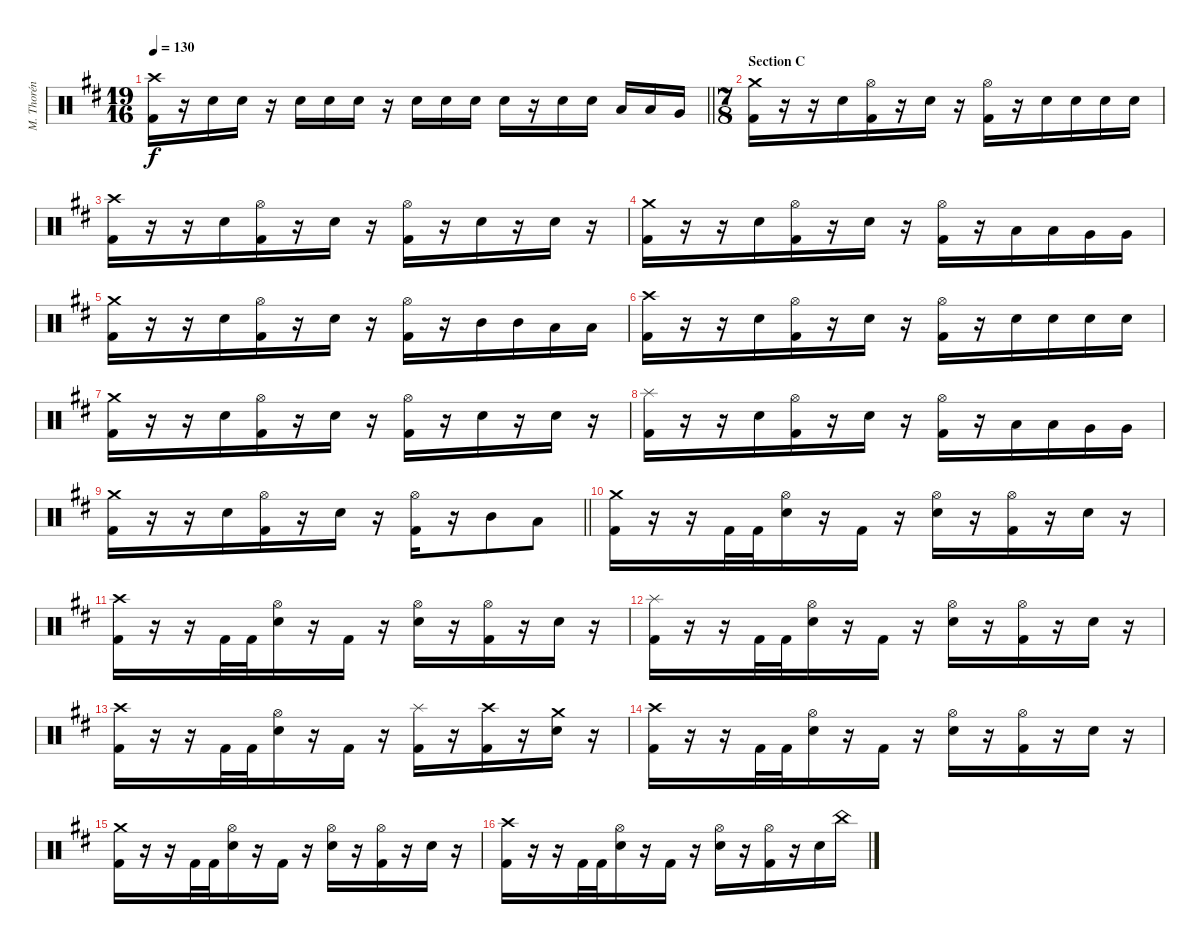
\track ("M. Thorén (Drums)" "M. Thorén ") {instrument percussion}
\staff {score}
\articulation defaults
\ts (19 16)
\tempo 130
\clef neutral
\barLineRight lightlight
\ks bminor
("Crash high (hit)" "Kick (hit) 2").16{dy f} r.16 "Electric Snare (hit)".16 "Electric Snare (hit)".16 r.16 "Electric Snare (hit)".16 "Electric Snare (hit)".16 "Electric Snare (hit)".16 r.16 "Electric Snare (hit)".16 "Electric Snare (hit)".16 "Electric Snare (hit)".16 "Electric Snare (hit)".16 r.16 "Electric Snare (hit)".16 "Electric Snare (hit)".16 "Low Tom (hit)".16 "Low Tom (hit)".16 "Very Low Tom (hit)".16 |
\ts (7 8)
\section ("" "Section C")
("Crash medium (hit)" "Kick (hit) 2").16 r.16 r.16 "Electric Snare (hit)".16 ("Hi-Hat (open)" "Kick (hit) 2").16 r.16 "Electric Snare (hit)".16 r.16 ("Hi-Hat (open)" "Kick (hit) 2").16 r.16 "Electric Snare (hit)".16 "Electric Snare (hit)".16 "Electric Snare (hit)".16 "Electric Snare (hit)".16 |
("Crash high (hit)" "Kick (hit) 2").16 r.16 r.16 "Electric Snare (hit)".16 ("Hi-Hat (open)" "Kick (hit) 2").16 r.16 "Electric Snare (hit)".16 r.16 ("Hi-Hat (open)" "Kick (hit) 2").16 r.16 "Electric Snare (hit)".16 r.16 "Electric Snare (hit)".16 r.16 |
("Crash medium (hit)" "Kick (hit) 2").16 r.16 r.16 "Electric Snare (hit)".16 ("Hi-Hat (open)" "Kick (hit) 2").16 r.16 "Electric Snare (hit)".16 r.16 ("Hi-Hat (open)" "Kick (hit) 2").16 r.16 "Low Tom (hit)".16 "Low Tom (hit)".16 "Very Low Tom (hit)".16 "Very Low Tom (hit)".16 |
("Crash medium (hit)" "Kick (hit) 2").16 r.16 r.16 "Electric Snare (hit)".16 ("Hi-Hat (open)" "Kick (hit) 2").16 r.16 "Electric Snare (hit)".16 r.16 ("Hi-Hat (open)" "Kick (hit) 2").16 r.16 "Mid Tom (hit)".16 "Mid Tom (hit)".16 "Low Tom (hit)".16 "Low Tom (hit)".16 |
("Crash high (hit)" "Kick (hit) 2").16 r.16 r.16 "Electric Snare (hit)".16 ("Hi-Hat (open)" "Kick (hit) 2").16 r.16 "Electric Snare (hit)".16 r.16 ("Hi-Hat (open)" "Kick (hit) 2").16 r.16 "Electric Snare (hit)".16 "Electric Snare (hit)".16 "Electric Snare (hit)".16 "Electric Snare (hit)".16 |
("Crash medium (hit)" "Kick (hit) 2").16 r.16 r.16 "Electric Snare (hit)".16 ("Hi-Hat (open)" "Kick (hit) 2").16 r.16 "Electric Snare (hit)".16 r.16 ("Hi-Hat (open)" "Kick (hit) 2").16 r.16 "Electric Snare (hit)".16 r.16 "Electric Snare (hit)".16 r.16 |
("Splash (hit)" "Kick (hit) 2").16 r.16 r.16 "Electric Snare (hit)".16 ("Hi-Hat (open)" "Kick (hit) 2").16 r.16 "Electric Snare (hit)".16 r.16 ("Hi-Hat (open)" "Kick (hit) 2").16 r.16 "Low Tom (hit)".16 "Low Tom (hit)".16 "Very Low Tom (hit)".16 "Very Low Tom (hit)".16 |
\barLineRight lightlight
("Crash medium (hit)" "Kick (hit) 2").16 r.16 r.16 "Electric Snare (hit)".16 ("Hi-Hat (open)" "Kick (hit) 2").16 r.16 "Electric Snare (hit)".16 r.16 ("Hi-Hat (open)" "Kick (hit) 2").16 r.16 "Mid Tom (hit)".8 "Low Tom (hit)".8 |
("Crash medium (hit)" "Kick (hit) 2").16 r.16 r.16 "Kick (hit) 2".32 "Kick (hit) 2".32 ("Hi-Hat (open)" "Electric Snare (hit)").16 r.16 "Kick (hit) 2".16 r.16 ("Hi-Hat (open)" "Electric Snare (hit)").16 r.16 ("Hi-Hat (open)" "Kick (hit) 2").16 r.16 "Electric Snare (hit)".16 r.16 |
("Crash high (hit)" "Kick (hit) 2").16 r.16 r.16 "Kick (hit) 2".32 "Kick (hit) 2".32 ("Hi-Hat (open)" "Electric Snare (hit)").16 r.16 "Kick (hit) 2".16 r.16 ("Hi-Hat (open)" "Electric Snare (hit)").16 r.16 ("Hi-Hat (open)" "Kick (hit) 2").16 r.16 "Electric Snare (hit)".16 r.16 |
("Splash (hit)" "Kick (hit) 2").16 r.16 r.16 "Kick (hit) 2".32 "Kick (hit) 2".32 ("Hi-Hat (open)" "Electric Snare (hit)").16 r.16 "Kick (hit) 2".16 r.16 ("Hi-Hat (open)" "Electric Snare (hit)").16 r.16 ("Hi-Hat (open)" "Kick (hit) 2").16 r.16 "Electric Snare (hit)".16 r.16 |
("Crash high (hit)" "Kick (hit) 2").16 r.16 r.16 "Kick (hit) 2".32 "Kick (hit) 2".32 ("Hi-Hat (open)" "Electric Snare (hit)").16 r.16 "Kick (hit) 2".16 r.16 ("Splash (hit)" "Kick (hit) 2").16 r.16 ("Crash high (hit)" "Kick (hit) 2").16 r.16 ("Crash medium (hit)" "Electric Snare (hit)").16 r.16 |
("Crash high (hit)" "Kick (hit) 2").16 r.16 r.16 "Kick (hit) 2".32 "Kick (hit) 2".32 ("Hi-Hat (open)" "Electric Snare (hit)").16 r.16 "Kick (hit) 2".16 r.16 ("Hi-Hat (open)" "Electric Snare (hit)").16 r.16 ("Hi-Hat (open)" "Kick (hit) 2").16 r.16 "Electric Snare (hit)".16 r.16 |
("Crash medium (hit)" "Kick (hit) 2").16 r.16 r.16 "Kick (hit) 2".32 "Kick (hit) 2".32 ("Hi-Hat (open)" "Electric Snare (hit)").16 r.16 "Kick (hit) 2".16 r.16 ("Hi-Hat (open)" "Electric Snare (hit)").16 r.16 ("Hi-Hat (open)" "Kick (hit) 2").16 r.16 "Electric Snare (hit)".16 r.16 |
("Crash high (hit)" "Kick (hit) 2").16 r.16 r.16 "Kick (hit) 2".32 "Kick (hit) 2".32 ("Hi-Hat (open)" "Electric Snare (hit)").16 r.16 "Kick (hit) 2".16 r.16 ("Hi-Hat (open)" "Electric Snare (hit)").16 r.16 ("Hi-Hat (open)" "Kick (hit) 2").16 r.16 "Electric Snare (hit)".16 "China (hit)".16
